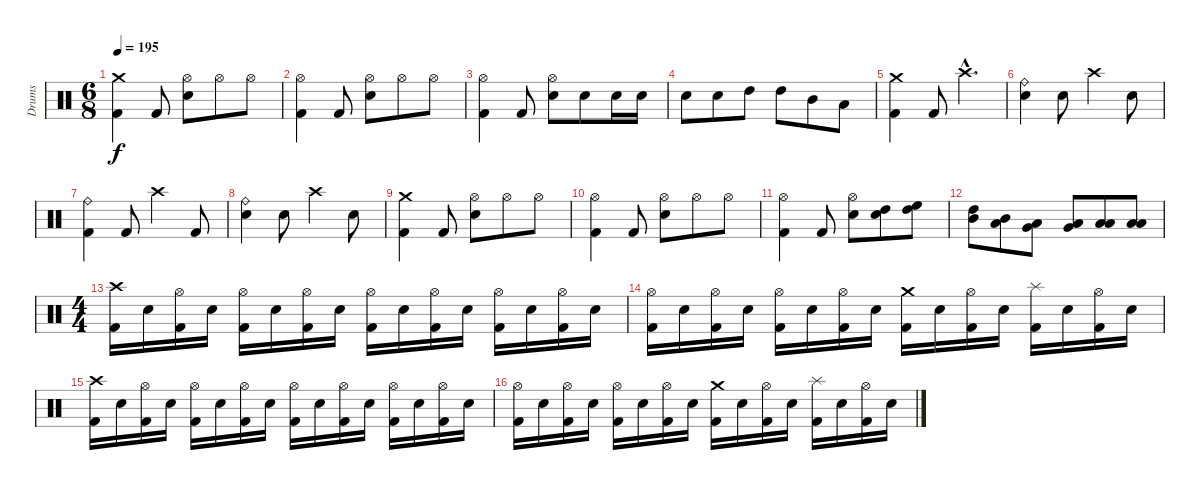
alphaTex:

\track ("Drums" "Drums") {instrument percussion}
\staff {score}
\articulation defaults
\ts (6 8)
\tempo 195
\clef neutral
\ks c
("Crash medium (hit)" "Kick (hit) 2").4{dy f} "Kick (hit) 2".8 ("Hi-Hat (open)" "Electric Snare (hit)").8 "Hi-Hat (open)".8 "Hi-Hat (open)".8 |
("Hi-Hat (open)" "Kick (hit) 2").4 "Kick (hit) 2".8 ("Hi-Hat (open)" "Electric Snare (hit)").8 "Hi-Hat (open)".8 "Hi-Hat (open)".8 |
("Hi-Hat (open)" "Kick (hit) 2").4 "Kick (hit) 2".8 ("Hi-Hat (open)" "Electric Snare (hit)").8 "Electric Snare (hit)".8 "Electric Snare (hit)".16 "Electric Snare (hit)".16 |
"Electric Snare (hit)".8 "Electric Snare (hit)".8 "High Tom (hit)".8 "High Tom (hit)".8 "Mid Tom (hit)".8 "Low Tom (hit)".8 |
("Crash medium (hit)" "Kick (hit) 2").4 "Kick (hit) 2".8 "Crash high (hit)"{hac}.4{d} |
("Ride (bell)" "Electric Snare (hit)").4 "Electric Snare (hit)".8 "Crash high (hit)".4 "Electric Snare (hit)".8 |
("Ride (bell)" "Kick (hit) 2").4 "Kick (hit) 2".8 "Crash high (hit)".4 "Kick (hit) 2".8 |
("Ride (bell)" "Electric Snare (hit)").4 "Electric Snare (hit)".8 "Crash high (hit)".4 "Electric Snare (hit)".8 |
("Crash medium (hit)" "Kick (hit) 2").4 "Kick (hit) 2".8 ("Hi-Hat (open)" "Electric Snare (hit)").8 "Hi-Hat (open)".8 "Hi-Hat (open)".8 |
("Hi-Hat (open)" "Kick (hit) 2").4 "Kick (hit) 2".8 ("Hi-Hat (open)" "Electric Snare (hit)").8 "Hi-Hat (open)".8 "Hi-Hat (open)".8 |
("Hi-Hat (open)" "Kick (hit) 2").4 "Kick (hit) 2".8 ("Hi-Hat (open)" "Electric Snare (hit)").8 ("Electric Snare (hit)" "High Tom (hit)").8 ("High Floor Tom (hit)" "High Tom (hit)").8 |
("High Tom (hit)" "Mid Tom (hit)").8 ("Mid Tom (hit)" "Low Tom (hit)").8 ("Low Tom (hit)" "Very Low Tom (hit)").8 ("Very Low Tom (hit)" "Low Floor Tom (hit)").8 ("Low Floor Tom (hit)" "Low Floor Tom (hit)").8 ("Low Floor Tom (hit)" "Low Floor Tom (hit)").8 |
\ts (4 4)
("Crash high (hit)" "Kick (hit) 2").16 "Electric Snare (hit)".16 ("Hi-Hat (open)" "Kick (hit) 2").16 "Electric Snare (hit)".16 ("Hi-Hat (open)" "Kick (hit) 2").16 "Electric Snare (hit)".16 ("Hi-Hat (open)" "Kick (hit) 2").16 "Electric Snare (hit)".16 ("Hi-Hat (open)" "Kick (hit) 2").16 "Electric Snare (hit)".16 ("Hi-Hat (open)" "Kick (hit) 2").16 "Electric Snare (hit)".16 ("Hi-Hat (open)" "Kick (hit) 2").16 "Electric Snare (hit)".16 ("Hi-Hat (open)" "Kick (hit) 2").16 "Electric Snare (hit)".16 |
("Hi-Hat (open)" "Kick (hit) 2").16 "Electric Snare (hit)".16 ("Hi-Hat (open)" "Kick (hit) 2").16 "Electric Snare (hit)".16 ("Hi-Hat (open)" "Kick (hit) 2").16 "Electric Snare (hit)".16 ("Hi-Hat (open)" "Kick (hit) 2").16 "Electric Snare (hit)".16 ("Crash medium (hit)" "Kick (hit) 2").16 "Electric Snare (hit)".16 ("Hi-Hat (open)" "Kick (hit) 2").16 "Electric Snare (hit)".16 ("Splash (hit)" "Kick (hit) 2").16 "Electric Snare (hit)".16 ("Hi-Hat (open)" "Kick (hit) 2").16 "Electric Snare (hit)".16 |
("Crash high (hit)" "Kick (hit) 2").16 "Electric Snare (hit)".16 ("Hi-Hat (open)" "Kick (hit) 2").16 "Electric Snare (hit)".16 ("Hi-Hat (open)" "Kick (hit) 2").16 "Electric Snare (hit)".16 ("Hi-Hat (open)" "Kick (hit) 2").16 "Electric Snare (hit)".16 ("Hi-Hat (open)" "Kick (hit) 2").16 "Electric Snare (hit)".16 ("Hi-Hat (open)" "Kick (hit) 2").16 "Electric Snare (hit)".16 ("Hi-Hat (open)" "Kick (hit) 2").16 "Electric Snare (hit)".16 ("Hi-Hat (open)" "Kick (hit) 2").16 "Electric Snare (hit)".16 |
("Hi-Hat (open)" "Kick (hit) 2").16 "Electric Snare (hit)".16 ("Hi-Hat (open)" "Kick (hit) 2").16 "Electric Snare (hit)".16 ("Hi-Hat (open)" "Kick (hit) 2").16 "Electric Snare (hit)".16 ("Hi-Hat (open)" "Kick (hit) 2").16 "Electric Snare (hit)".16 ("Crash medium (hit)" "Kick (hit) 2").16 "Electric Snare (hit)".16 ("Hi-Hat (open)" "Kick (hit) 2").16 "Electric Snare (hit)".16 ("Splash (hit)" "Kick (hit) 2").16 "Electric Snare (hit)".16 ("Hi-Hat (open)" "Kick (hit) 2").16 "Electric Snare (hit)".16
